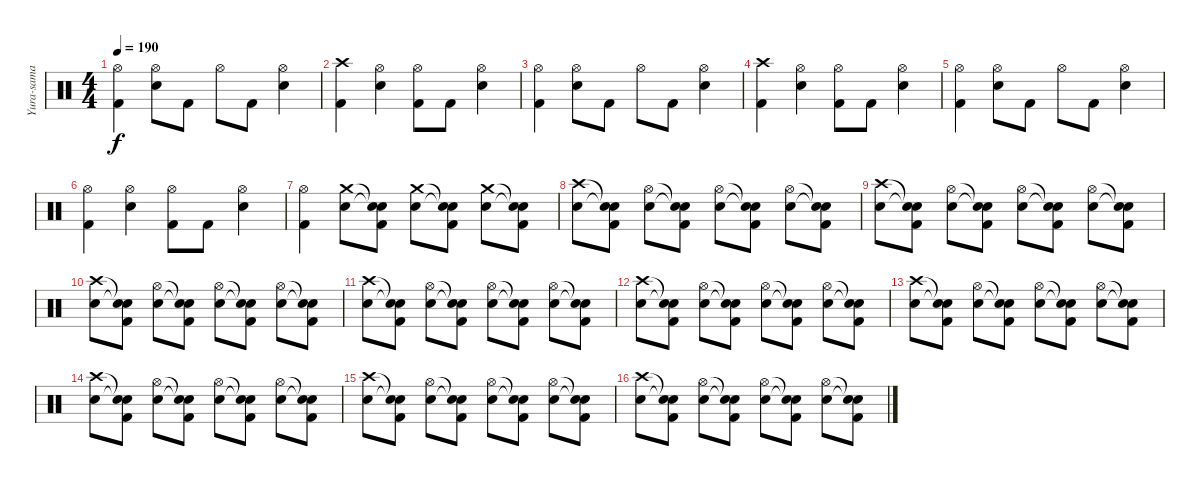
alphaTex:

\track ("Yura-sama" "Yura-sama") {instrument percussion}
\staff {score}
\articulation defaults
\ts (4 4)
\tempo 190
\clef neutral
\ks c
("Hi-Hat (open)" "Kick (hit) 2").4{dy f} ("Hi-Hat (open)" "Electric Snare (hit)").8 "Kick (hit) 2".8 "Hi-Hat (open)".8 "Kick (hit) 2".8 ("Hi-Hat (open)" "Electric Snare (hit)").4 |
("Crash high (hit)" "Kick (hit) 2").4 ("Hi-Hat (open)" "Electric Snare (hit)").4 ("Hi-Hat (open)" "Kick (hit) 2").8 "Kick (hit) 2".8 ("Hi-Hat (open)" "Electric Snare (hit)").4 |
("Hi-Hat (open)" "Kick (hit) 2").4 ("Hi-Hat (open)" "Electric Snare (hit)").8 "Kick (hit) 2".8 "Hi-Hat (open)".8 "Kick (hit) 2".8 ("Hi-Hat (open)" "Electric Snare (hit)").4 |
("Crash high (hit)" "Kick (hit) 2").4 ("Hi-Hat (open)" "Electric Snare (hit)").4 ("Hi-Hat (open)" "Kick (hit) 2").8 "Kick (hit) 2".8 ("Hi-Hat (open)" "Electric Snare (hit)").4 |
("Hi-Hat (open)" "Kick (hit) 2").4 ("Hi-Hat (open)" "Electric Snare (hit)").8 "Kick (hit) 2".8 "Hi-Hat (open)".8 "Kick (hit) 2".8 ("Hi-Hat (open)" "Electric Snare (hit)").4 |
("Hi-Hat (open)" "Kick (hit) 2").4 ("Hi-Hat (open)" "Electric Snare (hit)").4 ("Hi-Hat (open)" "Kick (hit) 2").8 "Kick (hit) 2".8 ("Hi-Hat (open)" "Electric Snare (hit)").4 |
("Hi-Hat (open)" "Kick (hit) 2").4 ("Crash medium (hit)" "Electric Snare (hit)").8 ("Snare (hit)"{t} "Snare (hit)"{t} "Kick (hit) 2").8 ("Crash medium (hit)" "Electric Snare (hit)").8 ("Snare (hit)"{t} "Snare (hit)"{t} "Kick (hit) 2").8 ("Crash medium (hit)" "Electric Snare (hit)").8 ("Snare (hit)"{t} "Snare (hit)"{t} "Kick (hit) 2").8 |
("Crash high (hit)" "Electric Snare (hit)").8 ("Snare (hit)"{t} "Snare (hit)"{t} "Kick (hit) 2").8 ("Hi-Hat (open)" "Electric Snare (hit)").8 ("Snare (hit)"{t} "Snare (hit)"{t} "Kick (hit) 2").8 ("Hi-Hat (open)" "Electric Snare (hit)").8 ("Snare (hit)"{t} "Snare (hit)"{t} "Kick (hit) 2").8 ("Hi-Hat (open)" "Electric Snare (hit)").8 ("Snare (hit)"{t} "Snare (hit)"{t} "Kick (hit) 2").8 |
("Crash high (hit)" "Electric Snare (hit)").8 ("Snare (hit)"{t} "Snare (hit)"{t} "Kick (hit) 2").8 ("Hi-Hat (open)" "Electric Snare (hit)").8 ("Snare (hit)"{t} "Snare (hit)"{t} "Kick (hit) 2").8 ("Hi-Hat (open)" "Electric Snare (hit)").8 ("Snare (hit)"{t} "Snare (hit)"{t} "Kick (hit) 2").8 ("Hi-Hat (open)" "Electric Snare (hit)").8 ("Snare (hit)"{t} "Snare (hit)"{t} "Kick (hit) 2").8 |
("Crash high (hit)" "Electric Snare (hit)").8 ("Snare (hit)"{t} "Snare (hit)"{t} "Kick (hit) 2").8 ("Hi-Hat (open)" "Electric Snare (hit)").8 ("Snare (hit)"{t} "Snare (hit)"{t} "Kick (hit) 2").8 ("Hi-Hat (open)" "Electric Snare (hit)").8 ("Snare (hit)"{t} "Snare (hit)"{t} "Kick (hit) 2").8 ("Hi-Hat (open)" "Electric Snare (hit)").8 ("Snare (hit)"{t} "Snare (hit)"{t} "Kick (hit) 2").8 |
("Crash high (hit)" "Electric Snare (hit)").8 ("Snare (hit)"{t} "Snare (hit)"{t} "Kick (hit) 2").8 ("Hi-Hat (open)" "Electric Snare (hit)").8 ("Snare (hit)"{t} "Snare (hit)"{t} "Kick (hit) 2").8 ("Hi-Hat (open)" "Electric Snare (hit)").8 ("Snare (hit)"{t} "Snare (hit)"{t} "Kick (hit) 2").8 ("Hi-Hat (open)" "Electric Snare (hit)").8 ("Snare (hit)"{t} "Snare (hit)"{t} "Kick (hit) 2").8 |
("Crash high (hit)" "Electric Snare (hit)").8 ("Snare (hit)"{t} "Snare (hit)"{t} "Kick (hit) 2").8 ("Hi-Hat (open)" "Electric Snare (hit)").8 ("Snare (hit)"{t} "Snare (hit)"{t} "Kick (hit) 2").8 ("Hi-Hat (open)" "Electric Snare (hit)").8 ("Snare (hit)"{t} "Snare (hit)"{t} "Kick (hit) 2").8 ("Hi-Hat (open)" "Electric Snare (hit)").8 ("Snare (hit)"{t} "Snare (hit)"{t} "Kick (hit) 2").8 |
("Crash high (hit)" "Electric Snare (hit)").8 ("Snare (hit)"{t} "Snare (hit)"{t} "Kick (hit) 2").8 ("Hi-Hat (open)" "Electric Snare (hit)").8 ("Snare (hit)"{t} "Snare (hit)"{t} "Kick (hit) 2").8 ("Hi-Hat (open)" "Electric Snare (hit)").8 ("Snare (hit)"{t} "Snare (hit)"{t} "Kick (hit) 2").8 ("Hi-Hat (open)" "Electric Snare (hit)").8 ("Snare (hit)"{t} "Snare (hit)"{t} "Kick (hit) 2").8 |
("Crash high (hit)" "Electric Snare (hit)").8 ("Snare (hit)"{t} "Snare (hit)"{t} "Kick (hit) 2").8 ("Hi-Hat (open)" "Electric Snare (hit)").8 ("Snare (hit)"{t} "Snare (hit)"{t} "Kick (hit) 2").8 ("Hi-Hat (open)" "Electric Snare (hit)").8 ("Snare (hit)"{t} "Snare (hit)"{t} "Kick (hit) 2").8 ("Hi-Hat (open)" "Electric Snare (hit)").8 ("Snare (hit)"{t} "Snare (hit)"{t} "Kick (hit) 2").8 |
("Crash high (hit)" "Electric Snare (hit)").8 ("Snare (hit)"{t} "Snare (hit)"{t} "Kick (hit) 2").8 ("Hi-Hat (open)" "Electric Snare (hit)").8 ("Snare (hit)"{t} "Snare (hit)"{t} "Kick (hit) 2").8 ("Hi-Hat (open)" "Electric Snare (hit)").8 ("Snare (hit)"{t} "Snare (hit)"{t} "Kick (hit) 2").8 ("Hi-Hat (open)" "Electric Snare (hit)").8 ("Snare (hit)"{t} "Snare (hit)"{t} "Kick (hit) 2").8 |
("Crash high (hit)" "Electric Snare (hit)").8 ("Snare (hit)"{t} "Snare (hit)"{t} "Kick (hit) 2").8 ("Hi-Hat (open)" "Electric Snare (hit)").8 ("Snare (hit)"{t} "Snare (hit)"{t} "Kick (hit) 2").8 ("Hi-Hat (open)" "Electric Snare (hit)").8 ("Snare (hit)"{t} "Snare (hit)"{t} "Kick (hit) 2").8 ("Hi-Hat (open)" "Electric Snare (hit)").8 ("Snare (hit)"{t} "Snare (hit)"{t} "Kick (hit) 2").8
